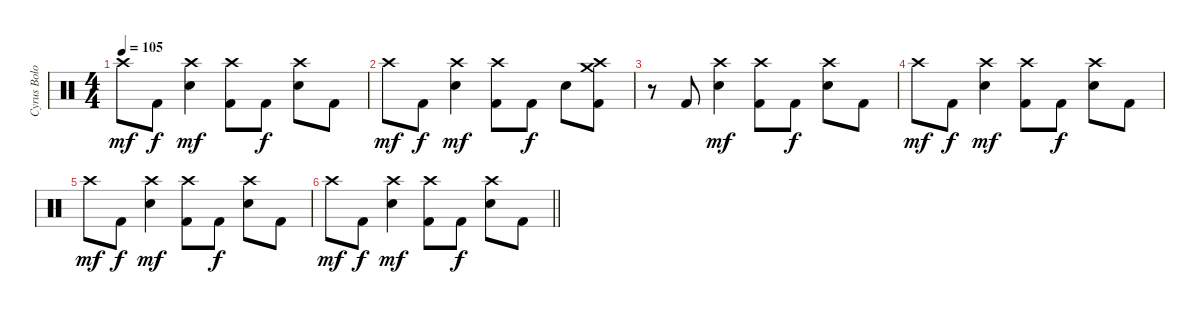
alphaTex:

\track ("Cyrus Bolooki Fade" "Cyrus Bolo") {instrument percussion}
\staff {score}
\articulation defaults
\ts (4 4)
\tempo 105
\clef neutral
\ks c "Crash high (hit)".8{dy mf} "Kick (hit) 2".8{dy f}
("Crash high (hit)" "Electric Snare (hit)").4{dy mf} ("Crash high (hit)" "Kick (hit) 2").8 "Kick (hit) 2".8{dy f} ("Crash high (hit)" "Electric Snare (hit)").8 "Kick (hit) 2".8 |
"Crash high (hit)".8{dy mf} "Kick (hit) 2".8{dy f} ("Crash high (hit)" "Electric Snare (hit)").4{dy mf} ("Crash high (hit)" "Kick (hit) 2").8 "Kick (hit) 2".8{dy f} "Electric Snare (hit)".8 ("Crash high (hit)" "Crash medium (hit)" "Kick (hit) 2").8 |
r.8{volume 0} "Kick (hit) 2".8 ("Crash high (hit)" "Electric Snare (hit)").4{dy mf} ("Crash high (hit)" "Kick (hit) 2").8 "Kick (hit) 2".8{dy f} ("Crash high (hit)" "Electric Snare (hit)").8 "Kick (hit) 2".8 |
"Crash high (hit)".8{dy mf} "Kick (hit) 2".8{dy f} ("Crash high (hit)" "Electric Snare (hit)").4{dy mf} ("Crash high (hit)" "Kick (hit) 2").8 "Kick (hit) 2".8{dy f} ("Crash high (hit)" "Electric Snare (hit)").8 "Kick (hit) 2".8 |
"Crash high (hit)".8{dy mf} "Kick (hit) 2".8{dy f} ("Crash high (hit)" "Electric Snare (hit)").4{dy mf} ("Crash high (hit)" "Kick (hit) 2").8 "Kick (hit) 2".8{dy f} ("Crash high (hit)" "Electric Snare (hit)").8 "Kick (hit) 2".8 |
\barLineRight lightlight "Crash high (hit)".8{dy mf} "Kick (hit) 2".8{dy f}
("Crash high (hit)" "Electric Snare (hit)").4{dy mf} ("Crash high (hit)" "Kick (hit) 2").8 "Kick (hit) 2".8{dy f} ("Crash high (hit)" "Electric Snare (hit)").8 "Kick (hit) 2".8
